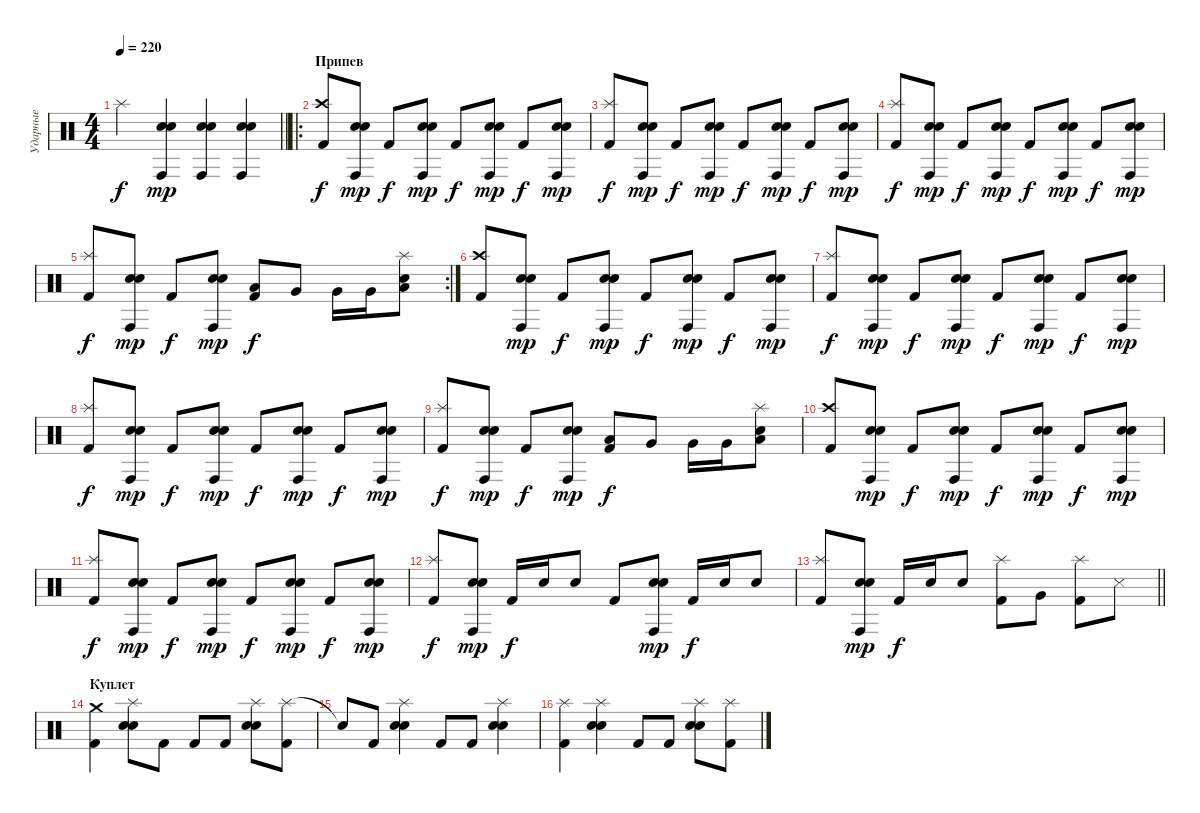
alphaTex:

\track ("Ударные" "Ударные") {instrument percussion}
\staff {score}
\articulation defaults
\ts (4 4)
\tempo 220
\clef neutral
\barLineRight lightlight
\ks c "Splash (hit)".4{dy f}
("Conga high (hit)" "Electric Snare (hit)" "Snare (hit) 2").4{dy mp} ("Conga high (hit)" "Electric Snare (hit)" "Snare (hit) 2").4 ("Conga high (hit)" "Electric Snare (hit)" "Snare (hit) 2").4 |
\ro
\section ("" "Припев")
("Crash high (hit)" "Kick (hit) 2").8{dy f} ("Conga high (hit)" "Electric Snare (hit)" "Snare (hit) 2").8{dy mp} "Kick (hit) 2".8{dy f} ("Conga high (hit)" "Electric Snare (hit)" "Snare (hit) 2").8{dy mp} "Kick (hit) 2".8{dy f} ("Conga high (hit)" "Electric Snare (hit)" "Snare (hit) 2").8{dy mp} "Kick (hit) 2".8{dy f} ("Conga high (hit)" "Electric Snare (hit)" "Snare (hit) 2").8{dy mp} |
("Splash (hit)" "Kick (hit) 2").8{dy f} ("Conga high (hit)" "Electric Snare (hit)" "Snare (hit) 2").8{dy mp} "Kick (hit) 2".8{dy f} ("Conga high (hit)" "Electric Snare (hit)" "Snare (hit) 2").8{dy mp} "Kick (hit) 2".8{dy f} ("Conga high (hit)" "Electric Snare (hit)" "Snare (hit) 2").8{dy mp} "Kick (hit) 2".8{dy f} ("Conga high (hit)" "Electric Snare (hit)" "Snare (hit) 2").8{dy mp} |
("Splash (hit)" "Kick (hit) 2").8{dy f} ("Conga high (hit)" "Electric Snare (hit)" "Snare (hit) 2").8{dy mp} "Kick (hit) 2".8{dy f} ("Conga high (hit)" "Electric Snare (hit)" "Snare (hit) 2").8{dy mp} "Kick (hit) 2".8{dy f} ("Conga high (hit)" "Electric Snare (hit)" "Snare (hit) 2").8{dy mp} "Kick (hit) 2".8{dy f} ("Conga high (hit)" "Electric Snare (hit)" "Snare (hit) 2").8{dy mp} |
\rc 2
("Splash (hit)" "Kick (hit) 2").8{dy f} ("Conga high (hit)" "Electric Snare (hit)" "Snare (hit) 2").8{dy mp} "Kick (hit) 2".8{dy f} ("Conga high (hit)" "Electric Snare (hit)" "Snare (hit) 2").8{dy mp} ("Low Tom (hit)" "Kick (hit) 2").8{dy f} "Very Low Tom (hit)".8 "Very Low Tom (hit)".16 "Very Low Tom (hit)".16 ("Splash (hit)" "Electric Snare (hit)" "Low Tom (hit)").8 |
("Crash high (hit)" "Kick (hit) 2").8 ("Conga high (hit)" "Electric Snare (hit)" "Snare (hit) 2").8{dy mp} "Kick (hit) 2".8{dy f} ("Conga high (hit)" "Electric Snare (hit)" "Snare (hit) 2").8{dy mp} "Kick (hit) 2".8{dy f} ("Conga high (hit)" "Electric Snare (hit)" "Snare (hit) 2").8{dy mp} "Kick (hit) 2".8{dy f} ("Conga high (hit)" "Electric Snare (hit)" "Snare (hit) 2").8{dy mp} |
("Splash (hit)" "Kick (hit) 2").8{dy f} ("Conga high (hit)" "Electric Snare (hit)" "Snare (hit) 2").8{dy mp} "Kick (hit) 2".8{dy f} ("Conga high (hit)" "Electric Snare (hit)" "Snare (hit) 2").8{dy mp} "Kick (hit) 2".8{dy f} ("Conga high (hit)" "Electric Snare (hit)" "Snare (hit) 2").8{dy mp} "Kick (hit) 2".8{dy f} ("Conga high (hit)" "Electric Snare (hit)" "Snare (hit) 2").8{dy mp} |
("Splash (hit)" "Kick (hit) 2").8{dy f} ("Conga high (hit)" "Electric Snare (hit)" "Snare (hit) 2").8{dy mp} "Kick (hit) 2".8{dy f} ("Conga high (hit)" "Electric Snare (hit)" "Snare (hit) 2").8{dy mp} "Kick (hit) 2".8{dy f} ("Conga high (hit)" "Electric Snare (hit)" "Snare (hit) 2").8{dy mp} "Kick (hit) 2".8{dy f} ("Conga high (hit)" "Electric Snare (hit)" "Snare (hit) 2").8{dy mp} |
("Splash (hit)" "Kick (hit) 2").8{dy f} ("Conga high (hit)" "Electric Snare (hit)" "Snare (hit) 2").8{dy mp} "Kick (hit) 2".8{dy f} ("Conga high (hit)" "Electric Snare (hit)" "Snare (hit) 2").8{dy mp} ("Low Tom (hit)" "Kick (hit) 2").8{dy f} "Very Low Tom (hit)".8 "Very Low Tom (hit)".16 "Very Low Tom (hit)".16 ("Splash (hit)" "Electric Snare (hit)" "Low Tom (hit)").8 |
("Crash high (hit)" "Kick (hit) 2").8 ("Conga high (hit)" "Electric Snare (hit)" "Snare (hit) 2").8{dy mp} "Kick (hit) 2".8{dy f} ("Conga high (hit)" "Electric Snare (hit)" "Snare (hit) 2").8{dy mp} "Kick (hit) 2".8{dy f} ("Conga high (hit)" "Electric Snare (hit)" "Snare (hit) 2").8{dy mp} "Kick (hit) 2".8{dy f} ("Conga high (hit)" "Electric Snare (hit)" "Snare (hit) 2").8{dy mp} |
("Splash (hit)" "Kick (hit) 2").8{dy f} ("Conga high (hit)" "Electric Snare (hit)" "Snare (hit) 2").8{dy mp} "Kick (hit) 2".8{dy f} ("Conga high (hit)" "Electric Snare (hit)" "Snare (hit) 2").8{dy mp} "Kick (hit) 2".8{dy f} ("Conga high (hit)" "Electric Snare (hit)" "Snare (hit) 2").8{dy mp} "Kick (hit) 2".8{dy f} ("Conga high (hit)" "Electric Snare (hit)" "Snare (hit) 2").8{dy mp} |
("Splash (hit)" "Kick (hit) 2").8{dy f} ("Conga high (hit)" "Electric Snare (hit)" "Snare (hit) 2").8{dy mp} "Kick (hit) 2".16{dy f} "Electric Snare (hit)".16 "Electric Snare (hit)".8 "Kick (hit) 2".8 ("Conga high (hit)" "Electric Snare (hit)" "Snare (hit) 2").8{dy mp} "Kick (hit) 2".16{dy f} "Electric Snare (hit)".16 "Electric Snare (hit)".8 |
\barLineRight lightlight
("Splash (hit)" "Kick (hit) 2").8 ("Conga high (hit)" "Electric Snare (hit)" "Snare (hit) 2").8{dy mp} "Kick (hit) 2".16{dy f} "Electric Snare (hit)".16 "Electric Snare (hit)".8 ("Splash (hit)" "Kick (hit) 2").8 "Very Low Tom (hit)".8 ("Splash (hit)" "Kick (hit) 2").8 "Snare (side stick) 3".8 |
\section ("" "Куплет")
("Crash medium (hit)" "Kick (hit) 2").4 ("Splash (hit)" "Electric Snare (hit)" "Snare (hit) 2").8 "Kick (hit) 2".8 "Kick (hit) 2".8 "Kick (hit) 2".8 ("Splash (hit)" "Electric Snare (hit)" "Snare (hit) 2").8 ("Splash (hit)" "Kick (hit) 2").8 |
"Snare (hit)"{t}.8 "Kick (hit) 2".8 ("Splash (hit)" "Electric Snare (hit)" "Snare (hit) 2").4 "Kick (hit) 2".8 "Kick (hit) 2".8 ("Splash (hit)" "Electric Snare (hit)" "Snare (hit) 2").4 |
("Splash (hit)" "Kick (hit) 2").4 ("Splash (hit)" "Electric Snare (hit)" "Snare (hit) 2").4 "Kick (hit) 2".8 "Kick (hit) 2".8 ("Splash (hit)" "Electric Snare (hit)" "Snare (hit) 2").8 ("Splash (hit)" "Kick (hit) 2").8
